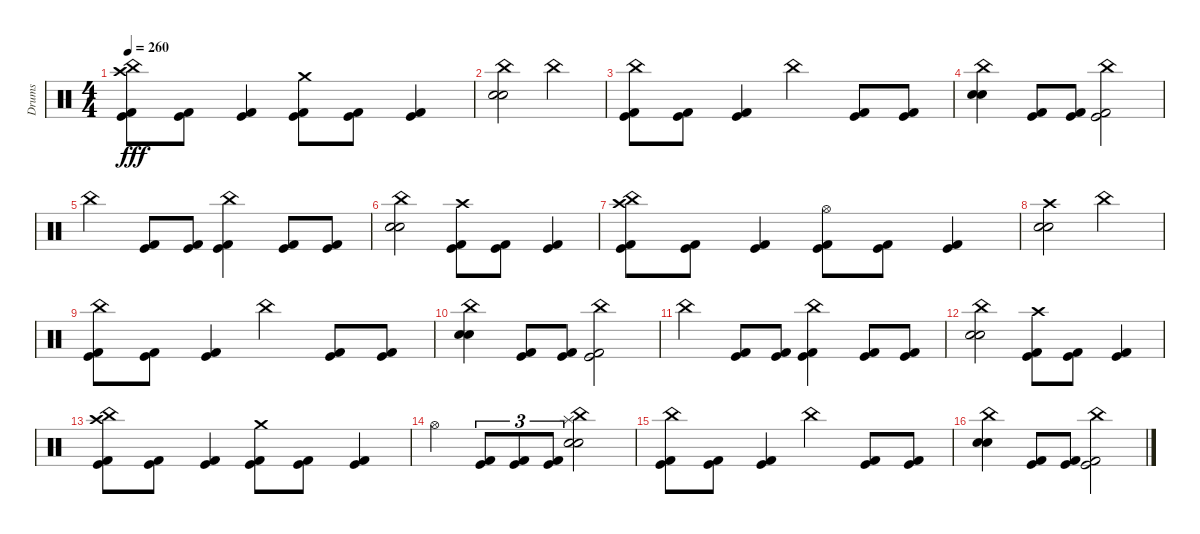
\track ("Drums" "Drums") {instrument percussion}
\staff {score}
\articulation defaults
\ts (4 4)
\tempo 260
\clef neutral
\ks c
("Kick (hit)" "Kick (hit) 2" "China (hit)" "Crash high (hit)").8{dy fff} ("Kick (hit)" "Kick (hit) 2").8 ("Kick (hit)" "Kick (hit) 2").4 ("Kick (hit)" "Kick (hit) 2" "Crash medium (hit)").8 ("Kick (hit)" "Kick (hit) 2").8 ("Kick (hit)" "Kick (hit) 2").4 |
("Electric Snare (hit)" "Electric Snare (hit)" "China (hit)").2 "China (hit)".2 |
("Kick (hit)" "Kick (hit) 2" "China (hit)").8 ("Kick (hit)" "Kick (hit) 2").8 ("Kick (hit)" "Kick (hit) 2").4 "China (hit)".4 ("Kick (hit)" "Kick (hit) 2").8 ("Kick (hit)" "Kick (hit) 2").8 |
("Electric Snare (hit)" "Electric Snare (hit)" "China (hit)").4 ("Kick (hit)" "Kick (hit) 2").8 ("Kick (hit)" "Kick (hit) 2").8 ("Kick (hit)" "Kick (hit) 2" "China (hit)").2 |
"China (hit)".4 ("Kick (hit)" "Kick (hit) 2").8 ("Kick (hit)" "Kick (hit) 2").8 ("Kick (hit)" "Kick (hit) 2" "China (hit)").4 ("Kick (hit)" "Kick (hit) 2").8 ("Kick (hit)" "Kick (hit) 2").8 |
("Electric Snare (hit)" "Electric Snare (hit)" "China (hit)").2 ("Kick (hit)" "Kick (hit) 2" "Crash high (hit)").8 ("Kick (hit)" "Kick (hit) 2").8 ("Kick (hit)" "Kick (hit) 2").4 |
("Kick (hit)" "Kick (hit) 2" "China (hit)" "Crash high (hit)").8 ("Kick (hit)" "Kick (hit) 2").8 ("Kick (hit)" "Kick (hit) 2").4 ("Kick (hit)" "Kick (hit) 2" "Hi-Hat (open)").8 ("Kick (hit)" "Kick (hit) 2").8 ("Kick (hit)" "Kick (hit) 2").4 |
("Electric Snare (hit)" "Electric Snare (hit)" "Crash high (hit)").2 "China (hit)".2 |
("Kick (hit)" "Kick (hit) 2" "China (hit)").8 ("Kick (hit)" "Kick (hit) 2").8 ("Kick (hit)" "Kick (hit) 2").4 "China (hit)".4 ("Kick (hit)" "Kick (hit) 2").8 ("Kick (hit)" "Kick (hit) 2").8 |
("Electric Snare (hit)" "Electric Snare (hit)" "China (hit)").4 ("Kick (hit)" "Kick (hit) 2").8 ("Kick (hit)" "Kick (hit) 2").8 ("Kick (hit)" "Kick (hit) 2" "China (hit)").2 |
"China (hit)".4 ("Kick (hit)" "Kick (hit) 2").8 ("Kick (hit)" "Kick (hit) 2").8 ("Kick (hit)" "Kick (hit) 2" "China (hit)").4 ("Kick (hit)" "Kick (hit) 2").8 ("Kick (hit)" "Kick (hit) 2").8 |
("Electric Snare (hit)" "Electric Snare (hit)" "China (hit)").2 ("Kick (hit)" "Kick (hit) 2" "Crash high (hit)").8 ("Kick (hit)" "Kick (hit) 2").8 ("Kick (hit)" "Kick (hit) 2").4 |
("Kick (hit)" "Kick (hit) 2" "China (hit)" "Crash high (hit)").8 ("Kick (hit)" "Kick (hit) 2").8 ("Kick (hit)" "Kick (hit) 2").4 ("Kick (hit)" "Kick (hit) 2" "Crash medium (hit)").8 ("Kick (hit)" "Kick (hit) 2").8 ("Kick (hit)" "Kick (hit) 2").4 |
"Hi-Hat (open)".4 ("Kick (hit)" "Kick (hit) 2").8{tu (3 2)} ("Kick (hit)" "Kick (hit) 2").8{tu (3 2)} ("Kick (hit)" "Kick (hit) 2").8{tu (3 2)} ("Electric Snare (hit)" "Electric Snare (hit)" "China (hit)" "Splash (hit)").2 |
("Kick (hit)" "Kick (hit) 2" "China (hit)").8 ("Kick (hit)" "Kick (hit) 2").8 ("Kick (hit)" "Kick (hit) 2").4 "China (hit)".4 ("Kick (hit)" "Kick (hit) 2").8 ("Kick (hit)" "Kick (hit) 2").8 |
("Electric Snare (hit)" "Electric Snare (hit)" "China (hit)").4 ("Kick (hit)" "Kick (hit) 2").8 ("Kick (hit)" "Kick (hit) 2").8 ("Kick (hit)" "Kick (hit) 2" "China (hit)").2
